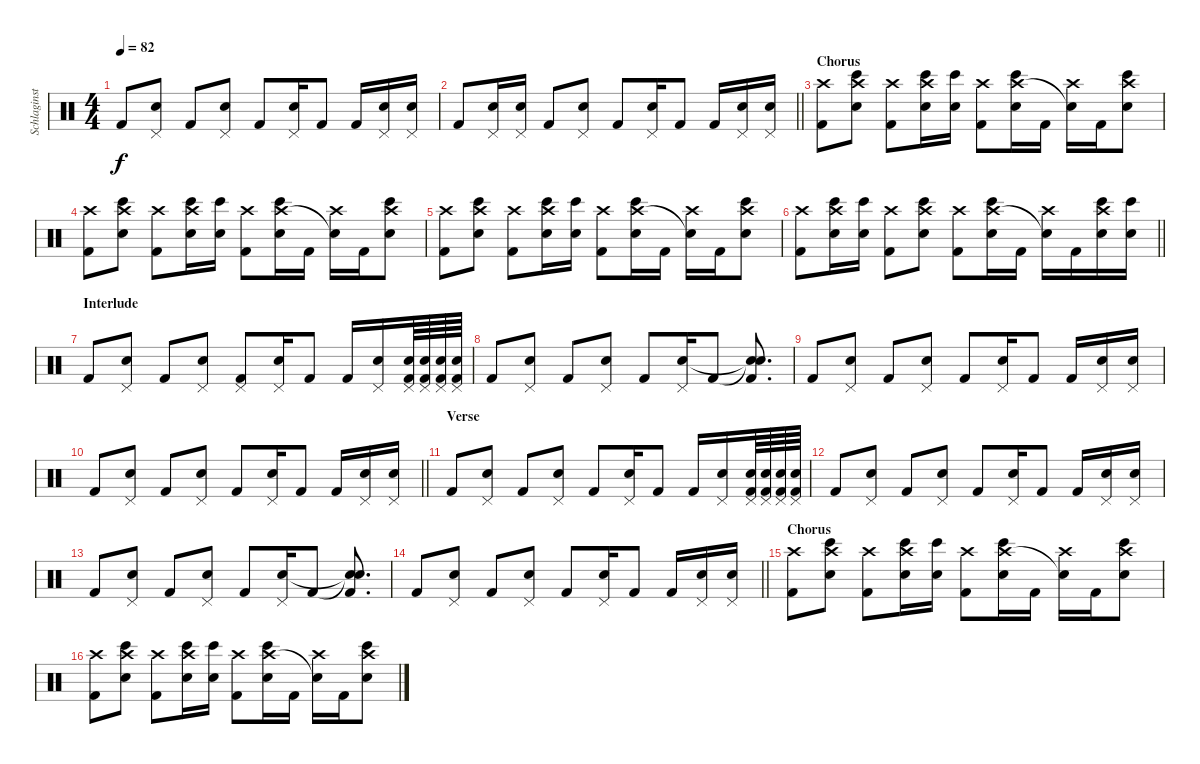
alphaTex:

\track ("Schlaginstrumente - Auswahl" "Schlaginst") {instrument percussion}
\staff {score}
\articulation defaults
\ts (4 4)
\tempo 82
\clef neutral
\ks c "Kick (hit) 2".8{dy f}
("Pedal Hi-Hat (hit)" "Electric Snare (hit)").8 "Kick (hit) 2".8 ("Pedal Hi-Hat (hit)" "Electric Snare (hit)").8 "Kick (hit) 2".8 ("Pedal Hi-Hat (hit)" "Electric Snare (hit)").16 "Kick (hit) 2".8 "Kick (hit) 2".16 ("Pedal Hi-Hat (hit)" "Electric Snare (hit)").16 ("Pedal Hi-Hat (hit)" "Electric Snare (hit)").16 |
\barLineRight lightlight "Kick (hit) 2".8
("Pedal Hi-Hat (hit)" "Electric Snare (hit)").16 ("Pedal Hi-Hat (hit)" "Electric Snare (hit)").16 "Kick (hit) 2".8 ("Pedal Hi-Hat (hit)" "Electric Snare (hit)").8 "Kick (hit) 2".8 ("Pedal Hi-Hat (hit)" "Electric Snare (hit)").16 "Kick (hit) 2".8 "Kick (hit) 2".16 ("Pedal Hi-Hat (hit)" "Electric Snare (hit)").16 ("Pedal Hi-Hat (hit)" "Electric Snare (hit)").16 |
\section ("" "Chorus")
("Crash high (hit)" "Kick (hit) 2").8 ("Bongo High (hit)" "Crash high (hit)" "Electric Snare (hit)").8 ("Crash high (hit)" "Kick (hit) 2").8 ("Bongo High (hit)" "Crash high (hit)" "Electric Snare (hit)").16 ("Bongo High (hit)" "Electric Snare (hit)").16 ("Crash high (hit)" "Kick (hit) 2").8 ("Bongo High (hit)" "Crash high (hit)" "Electric Snare (hit)").16 "Kick (hit) 2".16 ("Crash high (hit)" "Snare (hit)"{t}).16 "Kick (hit) 2".16 ("Bongo High (hit)" "Crash high (hit)" "Electric Snare (hit)").8 |
("Crash high (hit)" "Kick (hit) 2").8 ("Bongo High (hit)" "Crash high (hit)" "Electric Snare (hit)").8 ("Crash high (hit)" "Kick (hit) 2").8 ("Bongo High (hit)" "Crash high (hit)" "Electric Snare (hit)").16 ("Bongo High (hit)" "Electric Snare (hit)").16 ("Crash high (hit)" "Kick (hit) 2").8 ("Bongo High (hit)" "Crash high (hit)" "Electric Snare (hit)").16 "Kick (hit) 2".16 ("Crash high (hit)" "Snare (hit)"{t}).16 "Kick (hit) 2".16 ("Bongo High (hit)" "Crash high (hit)" "Electric Snare (hit)").8 |
("Crash high (hit)" "Kick (hit) 2").8 ("Bongo High (hit)" "Crash high (hit)" "Electric Snare (hit)").8 ("Crash high (hit)" "Kick (hit) 2").8 ("Bongo High (hit)" "Crash high (hit)" "Electric Snare (hit)").16 ("Bongo High (hit)" "Electric Snare (hit)").16 ("Crash high (hit)" "Kick (hit) 2").8 ("Bongo High (hit)" "Crash high (hit)" "Electric Snare (hit)").16 "Kick (hit) 2".16 ("Crash high (hit)" "Snare (hit)"{t}).16 "Kick (hit) 2".16 ("Bongo High (hit)" "Crash high (hit)" "Electric Snare (hit)").8 |
\barLineRight lightlight
("Crash high (hit)" "Kick (hit) 2").8 ("Bongo High (hit)" "Crash high (hit)" "Electric Snare (hit)").16 ("Bongo High (hit)" "Electric Snare (hit)").16 ("Crash high (hit)" "Kick (hit) 2").8 ("Bongo High (hit)" "Crash high (hit)" "Electric Snare (hit)").8 ("Crash high (hit)" "Kick (hit) 2").8 ("Bongo High (hit)" "Crash high (hit)" "Electric Snare (hit)").16 "Kick (hit) 2".16 ("Crash high (hit)" "Snare (hit)"{t}).16 "Kick (hit) 2".16 ("Bongo High (hit)" "Crash high (hit)" "Electric Snare (hit)").16 ("Bongo High (hit)" "Electric Snare (hit)").16 |
\section ("" "Interlude")
"Kick (hit) 2".8 ("Pedal Hi-Hat (hit)" "Electric Snare (hit)").8 "Kick (hit) 2".8 ("Pedal Hi-Hat (hit)" "Electric Snare (hit)").8 ("Pedal Hi-Hat (hit)" "Kick (hit) 2").8 ("Pedal Hi-Hat (hit)" "Electric Snare (hit)").16 "Kick (hit) 2".8 "Kick (hit) 2".16 ("Pedal Hi-Hat (hit)" "Electric Snare (hit)").16 ("Pedal Hi-Hat (hit)" "Electric Snare (hit)" "Kick (hit) 2").64 ("Pedal Hi-Hat (hit)" "Electric Snare (hit)" "Kick (hit) 2").64 ("Pedal Hi-Hat (hit)" "Electric Snare (hit)" "Kick (hit) 2").64 ("Pedal Hi-Hat (hit)" "Electric Snare (hit)" "Kick (hit) 2").64 |
"Kick (hit) 2".8 ("Pedal Hi-Hat (hit)" "Electric Snare (hit)").8 "Kick (hit) 2".8 ("Pedal Hi-Hat (hit)" "Electric Snare (hit)").8 "Kick (hit) 2".8 ("Pedal Hi-Hat (hit)" "Electric Snare (hit)").16 "Kick (hit) 2".8 ("Snare (hit)"{t} "Snare (hit)"{t} "Kick (hit) 2").8{d} |
"Kick (hit) 2".8 ("Pedal Hi-Hat (hit)" "Electric Snare (hit)").8 "Kick (hit) 2".8 ("Pedal Hi-Hat (hit)" "Electric Snare (hit)").8 "Kick (hit) 2".8 ("Pedal Hi-Hat (hit)" "Electric Snare (hit)").16 "Kick (hit) 2".8 "Kick (hit) 2".16 ("Pedal Hi-Hat (hit)" "Electric Snare (hit)").16 ("Pedal Hi-Hat (hit)" "Electric Snare (hit)").16 |
\barLineRight lightlight "Kick (hit) 2".8
("Pedal Hi-Hat (hit)" "Electric Snare (hit)").8 "Kick (hit) 2".8 ("Pedal Hi-Hat (hit)" "Electric Snare (hit)").8 "Kick (hit) 2".8 ("Pedal Hi-Hat (hit)" "Electric Snare (hit)").16 "Kick (hit) 2".8 "Kick (hit) 2".16 ("Pedal Hi-Hat (hit)" "Electric Snare (hit)").16 ("Pedal Hi-Hat (hit)" "Electric Snare (hit)").16 |
\section ("" "Verse")
"Kick (hit) 2".8 ("Pedal Hi-Hat (hit)" "Electric Snare (hit)").8 "Kick (hit) 2".8 ("Pedal Hi-Hat (hit)" "Electric Snare (hit)").8 "Kick (hit) 2".8 ("Pedal Hi-Hat (hit)" "Electric Snare (hit)").16 "Kick (hit) 2".8 "Kick (hit) 2".16 ("Pedal Hi-Hat (hit)" "Electric Snare (hit)").16 ("Pedal Hi-Hat (hit)" "Electric Snare (hit)" "Kick (hit) 2").64 ("Pedal Hi-Hat (hit)" "Electric Snare (hit)" "Kick (hit) 2").64 ("Pedal Hi-Hat (hit)" "Electric Snare (hit)" "Kick (hit) 2").64 ("Pedal Hi-Hat (hit)" "Electric Snare (hit)" "Kick (hit) 2").64 |
"Kick (hit) 2".8 ("Pedal Hi-Hat (hit)" "Electric Snare (hit)").8 "Kick (hit) 2".8 ("Pedal Hi-Hat (hit)" "Electric Snare (hit)").8 "Kick (hit) 2".8 ("Pedal Hi-Hat (hit)" "Electric Snare (hit)").16 "Kick (hit) 2".8 "Kick (hit) 2".16 ("Pedal Hi-Hat (hit)" "Electric Snare (hit)").16 ("Pedal Hi-Hat (hit)" "Electric Snare (hit)").16 |
"Kick (hit) 2".8 ("Pedal Hi-Hat (hit)" "Electric Snare (hit)").8 "Kick (hit) 2".8 ("Pedal Hi-Hat (hit)" "Electric Snare (hit)").8 "Kick (hit) 2".8 ("Pedal Hi-Hat (hit)" "Electric Snare (hit)").16 "Kick (hit) 2".8 ("Snare (hit)"{t} "Snare (hit)"{t} "Kick (hit) 2").8{d} |
\barLineRight lightlight "Kick (hit) 2".8
("Pedal Hi-Hat (hit)" "Electric Snare (hit)").8 "Kick (hit) 2".8 ("Pedal Hi-Hat (hit)" "Electric Snare (hit)").8 "Kick (hit) 2".8 ("Pedal Hi-Hat (hit)" "Electric Snare (hit)").16 "Kick (hit) 2".8 "Kick (hit) 2".16 ("Pedal Hi-Hat (hit)" "Electric Snare (hit)").16 ("Pedal Hi-Hat (hit)" "Electric Snare (hit)").16 |
\section ("" "Chorus")
("Crash high (hit)" "Kick (hit) 2").8 ("Bongo High (hit)" "Crash high (hit)" "Electric Snare (hit)").8 ("Crash high (hit)" "Kick (hit) 2").8 ("Bongo High (hit)" "Crash high (hit)" "Electric Snare (hit)").16 ("Bongo High (hit)" "Electric Snare (hit)").16 ("Crash high (hit)" "Kick (hit) 2").8 ("Bongo High (hit)" "Crash high (hit)" "Electric Snare (hit)").16 "Kick (hit) 2".16 ("Crash high (hit)" "Snare (hit)"{t}).16 "Kick (hit) 2".16 ("Bongo High (hit)" "Crash high (hit)" "Electric Snare (hit)").8 |
("Crash high (hit)" "Kick (hit) 2").8 ("Bongo High (hit)" "Crash high (hit)" "Electric Snare (hit)").8 ("Crash high (hit)" "Kick (hit) 2").8 ("Bongo High (hit)" "Crash high (hit)" "Electric Snare (hit)").16 ("Bongo High (hit)" "Electric Snare (hit)").16 ("Crash high (hit)" "Kick (hit) 2").8 ("Bongo High (hit)" "Crash high (hit)" "Electric Snare (hit)").16 "Kick (hit) 2".16 ("Crash high (hit)" "Snare (hit)"{t}).16 "Kick (hit) 2".16 ("Bongo High (hit)" "Crash high (hit)" "Electric Snare (hit)").8
